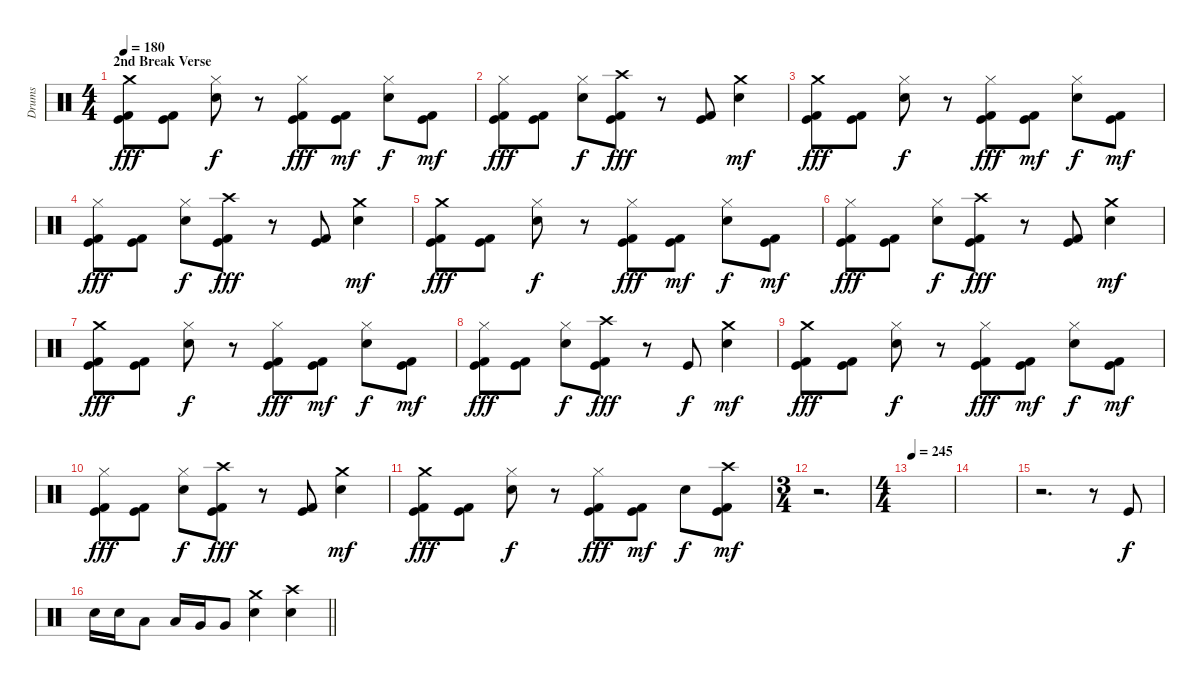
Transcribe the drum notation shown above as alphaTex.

\track ("Drums" "Drums") {instrument percussion}
\staff {score}
\articulation defaults
\ts (4 4)
\section ("" "2nd Break Verse")
\tempo 180
\clef neutral
\ks c
("Crash medium (hit)" "Kick (hit) 2" "Kick (hit)").8{dy fff} ("Kick (hit) 2" "Kick (hit)").8 ("Hi-Hat (closed)" "Snare (hit) 2").8{dy f} r.8 ("Hi-Hat (closed)" "Kick (hit) 2" "Kick (hit)").8{dy fff} ("Kick (hit) 2" "Kick (hit)").8{dy mf} ("Hi-Hat (closed)" "Snare (hit) 2").8{dy f} ("Kick (hit) 2" "Kick (hit)").8{dy mf} |
("Hi-Hat (closed)" "Kick (hit) 2" "Kick (hit)").8{dy fff} ("Kick (hit) 2" "Kick (hit)").8 ("Hi-Hat (closed)" "Snare (hit) 2").8{dy f} ("Crash high (hit)" "Kick (hit) 2" "Kick (hit)").8{dy fff} r.8 ("Kick (hit) 2" "Kick (hit)").8 ("Crash medium (hit)" "Snare (hit) 2").4{dy mf} |
("Crash medium (hit)" "Kick (hit) 2" "Kick (hit)").8{dy fff} ("Kick (hit) 2" "Kick (hit)").8 ("Hi-Hat (closed)" "Snare (hit) 2").8{dy f} r.8 ("Hi-Hat (closed)" "Kick (hit) 2" "Kick (hit)").8{dy fff} ("Kick (hit) 2" "Kick (hit)").8{dy mf} ("Hi-Hat (closed)" "Snare (hit) 2").8{dy f} ("Kick (hit) 2" "Kick (hit)").8{dy mf} |
("Hi-Hat (closed)" "Kick (hit) 2" "Kick (hit)").8{dy fff} ("Kick (hit) 2" "Kick (hit)").8 ("Hi-Hat (closed)" "Snare (hit) 2").8{dy f} ("Crash high (hit)" "Kick (hit) 2" "Kick (hit)").8{dy fff} r.8 ("Kick (hit) 2" "Kick (hit)").8 ("Crash medium (hit)" "Snare (hit) 2").4{dy mf} |
("Crash medium (hit)" "Kick (hit) 2" "Kick (hit)").8{dy fff} ("Kick (hit) 2" "Kick (hit)").8 ("Hi-Hat (closed)" "Snare (hit) 2").8{dy f} r.8 ("Hi-Hat (closed)" "Kick (hit) 2" "Kick (hit)").8{dy fff} ("Kick (hit) 2" "Kick (hit)").8{dy mf} ("Hi-Hat (closed)" "Snare (hit) 2").8{dy f} ("Kick (hit) 2" "Kick (hit)").8{dy mf} |
("Hi-Hat (closed)" "Kick (hit) 2" "Kick (hit)").8{dy fff} ("Kick (hit) 2" "Kick (hit)").8 ("Hi-Hat (closed)" "Snare (hit) 2").8{dy f} ("Crash high (hit)" "Kick (hit) 2" "Kick (hit)").8{dy fff} r.8 ("Kick (hit) 2" "Kick (hit)").8 ("Crash medium (hit)" "Snare (hit) 2").4{dy mf} |
("Crash medium (hit)" "Kick (hit) 2" "Kick (hit)").8{dy fff} ("Kick (hit) 2" "Kick (hit)").8 ("Hi-Hat (closed)" "Snare (hit) 2").8{dy f} r.8 ("Hi-Hat (closed)" "Kick (hit) 2" "Kick (hit)").8{dy fff} ("Kick (hit) 2" "Kick (hit)").8{dy mf} ("Hi-Hat (closed)" "Snare (hit) 2").8{dy f} ("Kick (hit) 2" "Kick (hit)").8{dy mf} |
("Hi-Hat (closed)" "Kick (hit) 2" "Kick (hit)").8{dy fff} ("Kick (hit) 2" "Kick (hit)").8 ("Hi-Hat (closed)" "Snare (hit) 2").8{dy f} ("Crash high (hit)" "Kick (hit) 2" "Kick (hit)").8{dy fff} r.8 "Kick (hit)".8{dy f} ("Crash medium (hit)" "Snare (hit) 2").4{dy mf} |
("Crash medium (hit)" "Kick (hit) 2" "Kick (hit)").8{dy fff} ("Kick (hit) 2" "Kick (hit)").8 ("Hi-Hat (closed)" "Snare (hit) 2").8{dy f} r.8 ("Hi-Hat (closed)" "Kick (hit) 2" "Kick (hit)").8{dy fff} ("Kick (hit) 2" "Kick (hit)").8{dy mf} ("Hi-Hat (closed)" "Snare (hit) 2").8{dy f} ("Kick (hit) 2" "Kick (hit)").8{dy mf} |
("Hi-Hat (closed)" "Kick (hit) 2" "Kick (hit)").8{dy fff} ("Kick (hit) 2" "Kick (hit)").8 ("Hi-Hat (closed)" "Snare (hit) 2").8{dy f} ("Crash high (hit)" "Kick (hit) 2" "Kick (hit)").8{dy fff} r.8 ("Kick (hit) 2" "Kick (hit)").8 ("Crash medium (hit)" "Snare (hit) 2").4{dy mf} |
("Crash medium (hit)" "Kick (hit) 2" "Kick (hit)").8{dy fff} ("Kick (hit) 2" "Kick (hit)").8 ("Hi-Hat (closed)" "Snare (hit) 2").8{dy f} r.8 ("Hi-Hat (closed)" "Kick (hit) 2" "Kick (hit)").8{dy fff} ("Kick (hit) 2" "Kick (hit)").8{dy mf} "Snare (hit) 2".8{dy f} ("Crash high (hit)" "Kick (hit) 2" "Kick (hit)").8{dy mf} |
\ts (3 4)
r.2{d} |
\ts (4 4)
\tempo 245
|
|
r.2{d} r.8 "Kick (hit)".8{dy f} |
\barLineRight lightlight "Snare (hit) 2".16 "Snare (hit) 2".16 "Low Tom (hit)".8 "Low Tom (hit)".16 "Very Low Tom (hit)".16 "Very Low Tom (hit)".8
("Crash medium (hit)" "Snare (hit) 2").4 ("Crash high (hit)" "Snare (hit) 2").4
